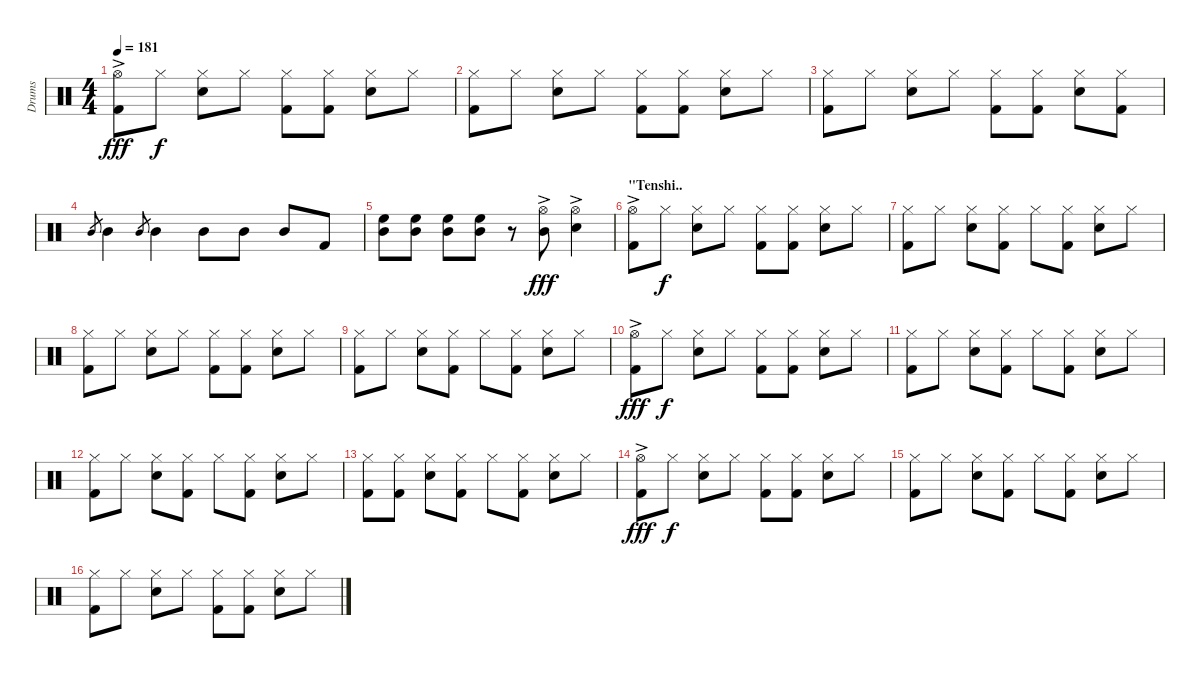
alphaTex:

\track ("Drums" "Drums") {instrument percussion}
\staff {score}
\articulation defaults
\ts (4 4)
\tempo 181
\clef neutral
\ks c
("Hi-Hat (open)"{ac} "Kick (hit) 2").8{dy fff} "Hi-Hat (closed)".8{dy f} ("Hi-Hat (closed)" "Snare (hit) 2").8 "Hi-Hat (closed)".8 ("Hi-Hat (closed)" "Kick (hit) 2").8 ("Hi-Hat (closed)" "Kick (hit) 2").8 ("Hi-Hat (closed)" "Snare (hit) 2").8 "Hi-Hat (closed)".8 |
("Hi-Hat (closed)" "Kick (hit) 2").8 "Hi-Hat (closed)".8 ("Hi-Hat (closed)" "Snare (hit) 2").8 "Hi-Hat (closed)".8 ("Hi-Hat (closed)" "Kick (hit) 2").8 ("Hi-Hat (closed)" "Kick (hit) 2").8 ("Hi-Hat (closed)" "Snare (hit) 2").8 "Hi-Hat (closed)".8 |
("Hi-Hat (closed)" "Kick (hit) 2").8 "Hi-Hat (closed)".8 ("Hi-Hat (closed)" "Snare (hit) 2").8 "Hi-Hat (closed)".8 ("Hi-Hat (closed)" "Kick (hit) 2").8 ("Hi-Hat (closed)" "Kick (hit) 2").8 ("Hi-Hat (closed)" "Snare (hit) 2").8 ("Hi-Hat (closed)" "Kick (hit) 2").8 |
"Mid Tom (hit)".8{gr} "Mid Tom (hit)".4 "Mid Tom (hit)".8{gr} "Mid Tom (hit)".4 "Mid Tom (hit)".8 "Mid Tom (hit)".8 "Mid Tom (hit)".8 "Kick (hit) 2".8 |
("High Floor Tom (hit)" "Mid Tom (hit)").8 ("High Floor Tom (hit)" "Mid Tom (hit)").8 ("High Floor Tom (hit)" "Mid Tom (hit)").8 ("High Floor Tom (hit)" "Mid Tom (hit)").8 r.8 ("Hi-Hat (open)"{ac} "Mid Tom (hit)").8{dy fff} ("Hi-Hat (open)"{ac} "Snare (hit) 2").4 |
\section ("" "\"Tenshi..")
("Hi-Hat (open)"{ac} "Kick (hit) 2").8 "Hi-Hat (closed)".8{dy f} ("Hi-Hat (closed)" "Snare (hit) 2").8 "Hi-Hat (closed)".8 ("Hi-Hat (closed)" "Kick (hit) 2").8 ("Hi-Hat (closed)" "Kick (hit) 2").8 ("Hi-Hat (closed)" "Snare (hit) 2").8 "Hi-Hat (closed)".8 |
("Hi-Hat (closed)" "Kick (hit) 2").8 "Hi-Hat (closed)".8 ("Hi-Hat (closed)" "Snare (hit) 2").8 ("Hi-Hat (closed)" "Kick (hit) 2").8 "Hi-Hat (closed)".8 ("Hi-Hat (closed)" "Kick (hit) 2").8 ("Hi-Hat (closed)" "Snare (hit) 2").8 "Hi-Hat (closed)".8 |
("Hi-Hat (closed)" "Kick (hit) 2").8 "Hi-Hat (closed)".8 ("Hi-Hat (closed)" "Snare (hit) 2").8 "Hi-Hat (closed)".8 ("Hi-Hat (closed)" "Kick (hit) 2").8 ("Hi-Hat (closed)" "Kick (hit) 2").8 ("Hi-Hat (closed)" "Snare (hit) 2").8 "Hi-Hat (closed)".8 |
("Hi-Hat (closed)" "Kick (hit) 2").8 "Hi-Hat (closed)".8 ("Hi-Hat (closed)" "Snare (hit) 2").8 ("Hi-Hat (closed)" "Kick (hit) 2").8 "Hi-Hat (closed)".8 ("Hi-Hat (closed)" "Kick (hit) 2").8 ("Hi-Hat (closed)" "Snare (hit) 2").8 "Hi-Hat (closed)".8 |
("Hi-Hat (open)"{ac} "Kick (hit) 2").8{dy fff} "Hi-Hat (closed)".8{dy f} ("Hi-Hat (closed)" "Snare (hit) 2").8 "Hi-Hat (closed)".8 ("Hi-Hat (closed)" "Kick (hit) 2").8 ("Hi-Hat (closed)" "Kick (hit) 2").8 ("Hi-Hat (closed)" "Snare (hit) 2").8 "Hi-Hat (closed)".8 |
("Hi-Hat (closed)" "Kick (hit) 2").8 "Hi-Hat (closed)".8 ("Hi-Hat (closed)" "Snare (hit) 2").8 ("Hi-Hat (closed)" "Kick (hit) 2").8 "Hi-Hat (closed)".8 ("Hi-Hat (closed)" "Kick (hit) 2").8 ("Hi-Hat (closed)" "Snare (hit) 2").8 "Hi-Hat (closed)".8 |
("Hi-Hat (closed)" "Kick (hit) 2").8 "Hi-Hat (closed)".8 ("Hi-Hat (closed)" "Snare (hit) 2").8 ("Hi-Hat (closed)" "Kick (hit) 2").8 "Hi-Hat (closed)".8 ("Hi-Hat (closed)" "Kick (hit) 2").8 ("Hi-Hat (closed)" "Snare (hit) 2").8 "Hi-Hat (closed)".8 |
("Hi-Hat (closed)" "Kick (hit) 2").8 ("Hi-Hat (closed)" "Kick (hit) 2").8 ("Hi-Hat (closed)" "Snare (hit) 2").8 ("Hi-Hat (closed)" "Kick (hit) 2").8 "Hi-Hat (closed)".8 ("Hi-Hat (closed)" "Kick (hit) 2").8 ("Hi-Hat (closed)" "Snare (hit) 2").8 "Hi-Hat (closed)".8 |
("Hi-Hat (open)"{ac} "Kick (hit) 2").8{dy fff} "Hi-Hat (closed)".8{dy f} ("Hi-Hat (closed)" "Snare (hit) 2").8 "Hi-Hat (closed)".8 ("Hi-Hat (closed)" "Kick (hit) 2").8 ("Hi-Hat (closed)" "Kick (hit) 2").8 ("Hi-Hat (closed)" "Snare (hit) 2").8 "Hi-Hat (closed)".8 |
("Hi-Hat (closed)" "Kick (hit) 2").8 "Hi-Hat (closed)".8 ("Hi-Hat (closed)" "Snare (hit) 2").8 ("Hi-Hat (closed)" "Kick (hit) 2").8 "Hi-Hat (closed)".8 ("Hi-Hat (closed)" "Kick (hit) 2").8 ("Hi-Hat (closed)" "Snare (hit) 2").8 "Hi-Hat (closed)".8 |
("Hi-Hat (closed)" "Kick (hit) 2").8 "Hi-Hat (closed)".8 ("Hi-Hat (closed)" "Snare (hit) 2").8 "Hi-Hat (closed)".8 ("Hi-Hat (closed)" "Kick (hit) 2").8 ("Hi-Hat (closed)" "Kick (hit) 2").8 ("Hi-Hat (closed)" "Snare (hit) 2").8 "Hi-Hat (closed)".8
